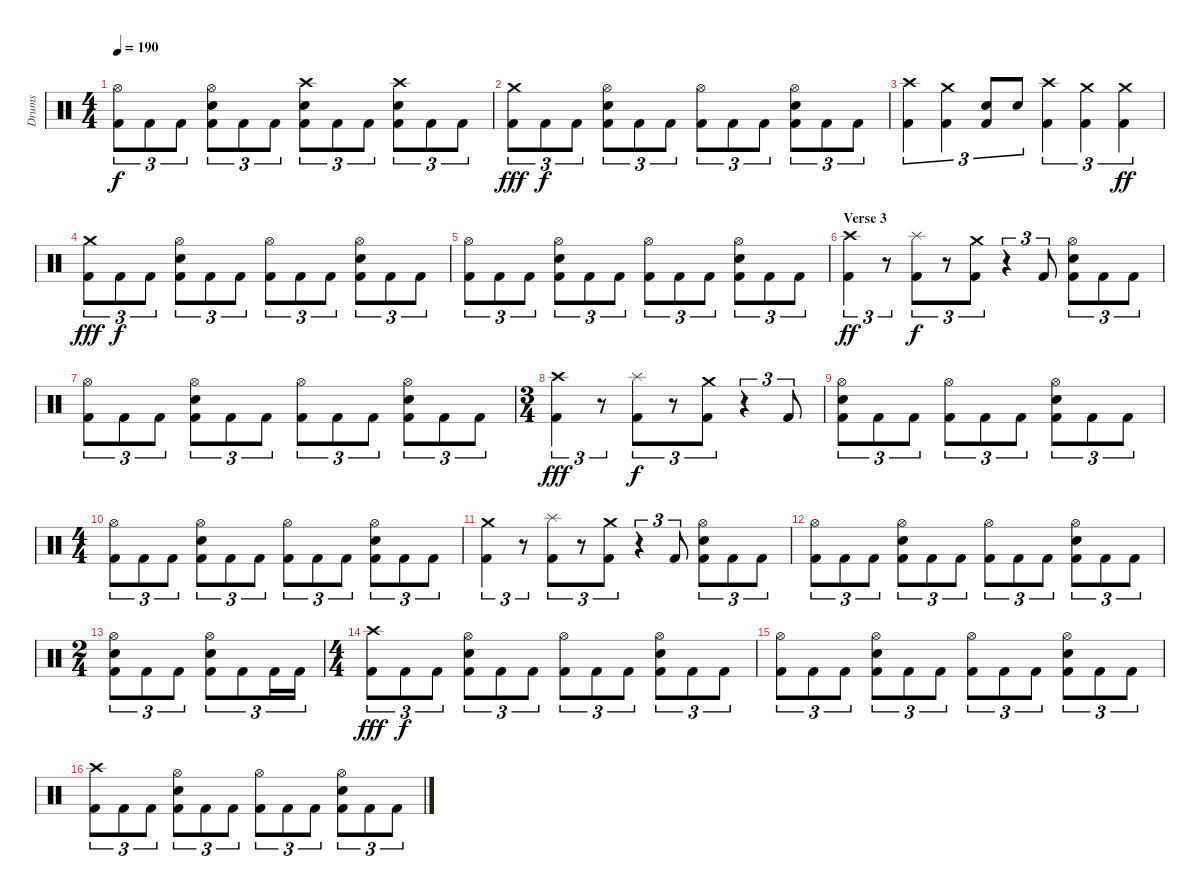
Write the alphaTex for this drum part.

\track ("Drums" "Drums") {instrument percussion}
\staff {score}
\articulation defaults
\ts (4 4)
\tempo 190
\clef neutral
\ks c
("Hi-Hat (open)" "Kick (hit) 2").8{tu (3 2) dy f} "Kick (hit) 2".8{tu (3 2)} "Kick (hit) 2".8{tu (3 2)} ("Hi-Hat (open)" "Snare (hit) 2" "Kick (hit) 2").8{tu (3 2)} "Kick (hit) 2".8{tu (3 2)} "Kick (hit) 2".8{tu (3 2)} ("Crash high (hit)" "Snare (hit) 2" "Kick (hit) 2").8{tu (3 2)} "Kick (hit) 2".8{tu (3 2)} "Kick (hit) 2".8{tu (3 2)} ("Crash high (hit)" "Snare (hit) 2" "Kick (hit) 2").8{tu (3 2)} "Kick (hit) 2".8{tu (3 2)} "Kick (hit) 2".8{tu (3 2)} |
("Crash medium (hit)" "Kick (hit) 2").8{tu (3 2) dy fff} "Kick (hit) 2".8{tu (3 2) dy f} "Kick (hit) 2".8{tu (3 2)} ("Hi-Hat (open)" "Snare (hit) 2" "Kick (hit) 2").8{tu (3 2)} "Kick (hit) 2".8{tu (3 2)} "Kick (hit) 2".8{tu (3 2)} ("Hi-Hat (open)" "Kick (hit) 2").8{tu (3 2)} "Kick (hit) 2".8{tu (3 2)} "Kick (hit) 2".8{tu (3 2)} ("Hi-Hat (open)" "Snare (hit) 2" "Kick (hit) 2").8{tu (3 2)} "Kick (hit) 2".8{tu (3 2)} "Kick (hit) 2".8{tu (3 2)} |
("Crash high (hit)" "Kick (hit) 2").4{tu (3 2)} ("Crash medium (hit)" "Kick (hit) 2").4{tu (3 2)} ("Snare (hit) 2" "Kick (hit) 2").8{tu (3 2)} "Snare (hit) 2".8{tu (3 2)} ("Crash high (hit)" "Kick (hit) 2").4{tu (3 2)} ("Crash medium (hit)" "Kick (hit) 2").4{tu (3 2)} ("Crash medium (hit)" "Kick (hit) 2").4{tu (3 2) dy ff} |
("Crash medium (hit)" "Kick (hit) 2").8{tu (3 2) dy fff} "Kick (hit) 2".8{tu (3 2) dy f} "Kick (hit) 2".8{tu (3 2)} ("Hi-Hat (open)" "Snare (hit) 2" "Kick (hit) 2").8{tu (3 2)} "Kick (hit) 2".8{tu (3 2)} "Kick (hit) 2".8{tu (3 2)} ("Hi-Hat (open)" "Kick (hit) 2").8{tu (3 2)} "Kick (hit) 2".8{tu (3 2)} "Kick (hit) 2".8{tu (3 2)} ("Hi-Hat (open)" "Snare (hit) 2" "Kick (hit) 2").8{tu (3 2)} "Kick (hit) 2".8{tu (3 2)} "Kick (hit) 2".8{tu (3 2)} |
("Hi-Hat (open)" "Kick (hit) 2").8{tu (3 2)} "Kick (hit) 2".8{tu (3 2)} "Kick (hit) 2".8{tu (3 2)} ("Hi-Hat (open)" "Snare (hit) 2" "Kick (hit) 2").8{tu (3 2)} "Kick (hit) 2".8{tu (3 2)} "Kick (hit) 2".8{tu (3 2)} ("Hi-Hat (open)" "Kick (hit) 2").8{tu (3 2)} "Kick (hit) 2".8{tu (3 2)} "Kick (hit) 2".8{tu (3 2)} ("Hi-Hat (open)" "Snare (hit) 2" "Kick (hit) 2").8{tu (3 2)} "Kick (hit) 2".8{tu (3 2)} "Kick (hit) 2".8{tu (3 2)} |
\section ("" "Verse 3")
("Crash high (hit)" "Kick (hit) 2").4{tu (3 2) dy ff} r.8{tu (3 2)} ("Splash (hit)" "Kick (hit) 2").8{tu (3 2) dy f} r.8{tu (3 2)} ("Crash medium (hit)" "Kick (hit) 2").8{tu (3 2)} r.4{tu (3 2)} "Kick (hit) 2".8{tu (3 2)} ("Hi-Hat (open)" "Snare (hit) 2" "Kick (hit) 2").8{tu (3 2)} "Kick (hit) 2".8{tu (3 2)} "Kick (hit) 2".8{tu (3 2)} |
("Hi-Hat (open)" "Kick (hit) 2").8{tu (3 2)} "Kick (hit) 2".8{tu (3 2)} "Kick (hit) 2".8{tu (3 2)} ("Hi-Hat (open)" "Snare (hit) 2" "Kick (hit) 2").8{tu (3 2)} "Kick (hit) 2".8{tu (3 2)} "Kick (hit) 2".8{tu (3 2)} ("Hi-Hat (open)" "Kick (hit) 2").8{tu (3 2)} "Kick (hit) 2".8{tu (3 2)} "Kick (hit) 2".8{tu (3 2)} ("Hi-Hat (open)" "Snare (hit) 2" "Kick (hit) 2").8{tu (3 2)} "Kick (hit) 2".8{tu (3 2)} "Kick (hit) 2".8{tu (3 2)} |
\ts (3 4)
("Crash high (hit)" "Kick (hit) 2").4{tu (3 2) dy fff} r.8{tu (3 2)} ("Splash (hit)" "Kick (hit) 2").8{tu (3 2) dy f} r.8{tu (3 2)} ("Crash medium (hit)" "Kick (hit) 2").8{tu (3 2)} r.4{tu (3 2)} "Kick (hit) 2".8{tu (3 2)} |
("Hi-Hat (open)" "Snare (hit) 2" "Kick (hit) 2").8{tu (3 2)} "Kick (hit) 2".8{tu (3 2)} "Kick (hit) 2".8{tu (3 2)} ("Hi-Hat (open)" "Kick (hit) 2").8{tu (3 2)} "Kick (hit) 2".8{tu (3 2)} "Kick (hit) 2".8{tu (3 2)} ("Hi-Hat (open)" "Snare (hit) 2" "Kick (hit) 2").8{tu (3 2)} "Kick (hit) 2".8{tu (3 2)} "Kick (hit) 2".8{tu (3 2)} |
\ts (4 4)
("Hi-Hat (open)" "Kick (hit) 2").8{tu (3 2)} "Kick (hit) 2".8{tu (3 2)} "Kick (hit) 2".8{tu (3 2)} ("Hi-Hat (open)" "Snare (hit) 2" "Kick (hit) 2").8{tu (3 2)} "Kick (hit) 2".8{tu (3 2)} "Kick (hit) 2".8{tu (3 2)} ("Hi-Hat (open)" "Kick (hit) 2").8{tu (3 2)} "Kick (hit) 2".8{tu (3 2)} "Kick (hit) 2".8{tu (3 2)} ("Hi-Hat (open)" "Snare (hit) 2" "Kick (hit) 2").8{tu (3 2)} "Kick (hit) 2".8{tu (3 2)} "Kick (hit) 2".8{tu (3 2)} |
("Crash medium (hit)" "Kick (hit) 2").4{tu (3 2)} r.8{tu (3 2)} ("Splash (hit)" "Kick (hit) 2").8{tu (3 2)} r.8{tu (3 2)} ("Crash medium (hit)" "Kick (hit) 2").8{tu (3 2)} r.4{tu (3 2)} "Kick (hit) 2".8{tu (3 2)} ("Hi-Hat (open)" "Snare (hit) 2" "Kick (hit) 2").8{tu (3 2)} "Kick (hit) 2".8{tu (3 2)} "Kick (hit) 2".8{tu (3 2)} |
("Hi-Hat (open)" "Kick (hit) 2").8{tu (3 2)} "Kick (hit) 2".8{tu (3 2)} "Kick (hit) 2".8{tu (3 2)} ("Hi-Hat (open)" "Snare (hit) 2" "Kick (hit) 2").8{tu (3 2)} "Kick (hit) 2".8{tu (3 2)} "Kick (hit) 2".8{tu (3 2)} ("Hi-Hat (open)" "Kick (hit) 2").8{tu (3 2)} "Kick (hit) 2".8{tu (3 2)} "Kick (hit) 2".8{tu (3 2)} ("Hi-Hat (open)" "Snare (hit) 2" "Kick (hit) 2").8{tu (3 2)} "Kick (hit) 2".8{tu (3 2)} "Kick (hit) 2".8{tu (3 2)} |
\ts (2 4)
("Hi-Hat (open)" "Snare (hit) 2" "Kick (hit) 2").8{tu (3 2)} "Kick (hit) 2".8{tu (3 2)} "Kick (hit) 2".8{tu (3 2)} ("Hi-Hat (open)" "Snare (hit) 2" "Kick (hit) 2").8{tu (3 2)} "Kick (hit) 2".8{tu (3 2)} "Kick (hit) 2".16{tu (3 2)} "Kick (hit) 2".16{tu (3 2)} |
\ts (4 4)
("Crash high (hit)" "Kick (hit) 2").8{tu (3 2) dy fff} "Kick (hit) 2".8{tu (3 2) dy f} "Kick (hit) 2".8{tu (3 2)} ("Hi-Hat (open)" "Snare (hit) 2" "Kick (hit) 2").8{tu (3 2)} "Kick (hit) 2".8{tu (3 2)} "Kick (hit) 2".8{tu (3 2)} ("Hi-Hat (open)" "Kick (hit) 2").8{tu (3 2)} "Kick (hit) 2".8{tu (3 2)} "Kick (hit) 2".8{tu (3 2)} ("Hi-Hat (open)" "Snare (hit) 2" "Kick (hit) 2").8{tu (3 2)} "Kick (hit) 2".8{tu (3 2)} "Kick (hit) 2".8{tu (3 2)} |
("Hi-Hat (open)" "Kick (hit) 2").8{tu (3 2)} "Kick (hit) 2".8{tu (3 2)} "Kick (hit) 2".8{tu (3 2)} ("Hi-Hat (open)" "Snare (hit) 2" "Kick (hit) 2").8{tu (3 2)} "Kick (hit) 2".8{tu (3 2)} "Kick (hit) 2".8{tu (3 2)} ("Hi-Hat (open)" "Kick (hit) 2").8{tu (3 2)} "Kick (hit) 2".8{tu (3 2)} "Kick (hit) 2".8{tu (3 2)} ("Hi-Hat (open)" "Snare (hit) 2" "Kick (hit) 2").8{tu (3 2)} "Kick (hit) 2".8{tu (3 2)} "Kick (hit) 2".8{tu (3 2)} |
("Crash high (hit)" "Kick (hit) 2").8{tu (3 2)} "Kick (hit) 2".8{tu (3 2)} "Kick (hit) 2".8{tu (3 2)} ("Hi-Hat (open)" "Snare (hit) 2" "Kick (hit) 2").8{tu (3 2)} "Kick (hit) 2".8{tu (3 2)} "Kick (hit) 2".8{tu (3 2)} ("Hi-Hat (open)" "Kick (hit) 2").8{tu (3 2)} "Kick (hit) 2".8{tu (3 2)} "Kick (hit) 2".8{tu (3 2)} ("Hi-Hat (open)" "Snare (hit) 2" "Kick (hit) 2").8{tu (3 2)} "Kick (hit) 2".8{tu (3 2)} "Kick (hit) 2".8{tu (3 2)}
